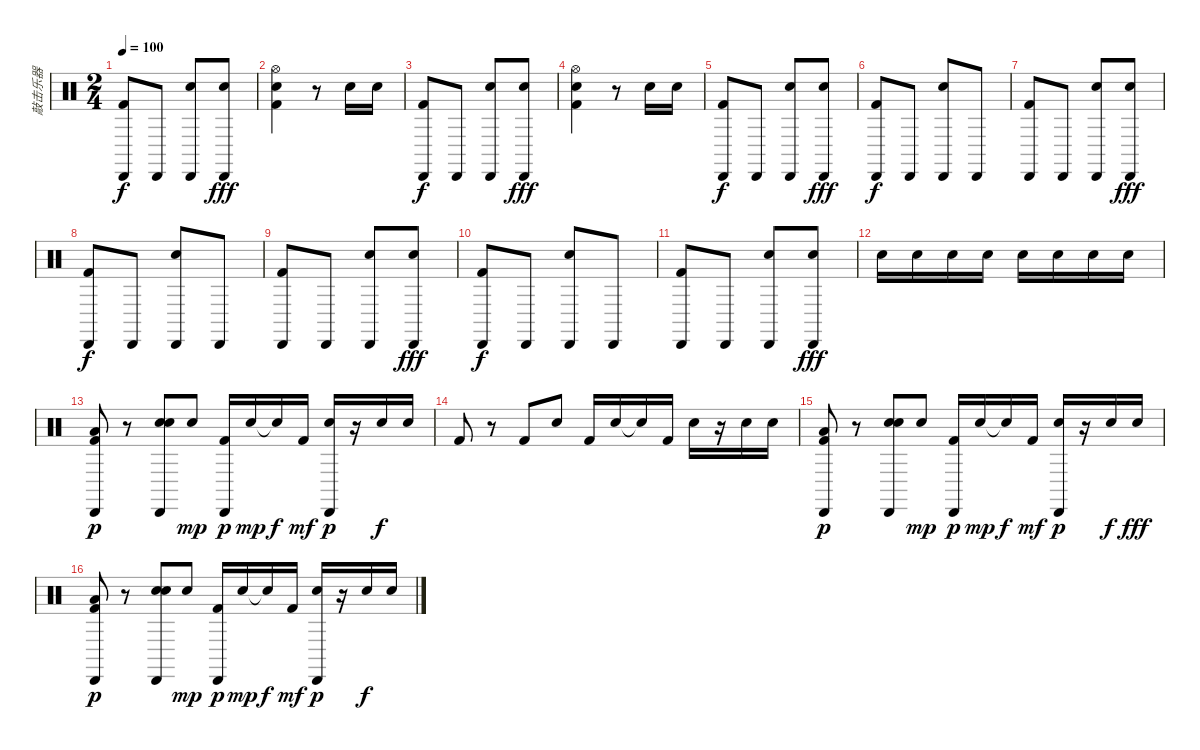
\track ("敲击乐器" "敲击乐器") {instrument percussion}
\staff {score}
\articulation defaults
\ts (2 4)
\tempo 100
\clef neutral
\ks c
("Cabasa (hit)" "Kick (hit) 2").8{dy f} "Cabasa (hit)".8 ("Cabasa (hit)" "Snare (hit) 2").8 ("Cabasa (hit)" "Electric Snare (hit)").8{dy fff} |
("Kick (hit) 2" "Snare (hit) 2" "Hi-Hat (open)").4 r.8 "Snare (hit) 2".16 "Snare (hit) 2".16 |
("Cabasa (hit)" "Kick (hit) 2").8{dy f} "Cabasa (hit)".8 ("Cabasa (hit)" "Snare (hit) 2").8 ("Cabasa (hit)" "Electric Snare (hit)").8{dy fff} |
("Kick (hit) 2" "Snare (hit) 2" "Hi-Hat (open)").4 r.8 "Snare (hit) 2".16 "Snare (hit) 2".16 |
("Cabasa (hit)" "Kick (hit) 2").8{dy f} "Cabasa (hit)".8 ("Cabasa (hit)" "Snare (hit) 2").8 ("Cabasa (hit)" "Electric Snare (hit)").8{dy fff} |
("Cabasa (hit)" "Kick (hit) 2").8{dy f} "Cabasa (hit)".8 ("Cabasa (hit)" "Snare (hit) 2").8 "Cabasa (hit)".8 |
("Cabasa (hit)" "Kick (hit) 2").8 "Cabasa (hit)".8 ("Cabasa (hit)" "Snare (hit) 2").8 ("Cabasa (hit)" "Electric Snare (hit)").8{dy fff} |
("Cabasa (hit)" "Kick (hit) 2").8{dy f} "Cabasa (hit)".8 ("Cabasa (hit)" "Snare (hit) 2").8 "Cabasa (hit)".8 |
("Cabasa (hit)" "Kick (hit) 2").8 "Cabasa (hit)".8 ("Cabasa (hit)" "Snare (hit) 2").8 ("Cabasa (hit)" "Electric Snare (hit)").8{dy fff} |
("Cabasa (hit)" "Kick (hit) 2").8{dy f} "Cabasa (hit)".8 ("Cabasa (hit)" "Snare (hit) 2").8 "Cabasa (hit)".8 |
("Cabasa (hit)" "Kick (hit) 2").8 "Cabasa (hit)".8 ("Cabasa (hit)" "Snare (hit) 2").8 ("Cabasa (hit)" "Electric Snare (hit)").8{dy fff} |
"Snare (hit) 2".16 "Snare (hit) 2".16 "Snare (hit) 2".16 "Snare (hit) 2".16 "Snare (hit) 2".16 "Snare (hit) 2".16 "Snare (hit) 2".16 "Snare (hit) 2".16 |
("Kick (hit) 2" "Low Floor Tom (hit)" "Cabasa (hit)").8{dy p} r.8 ("Snare (hit) 2" "Electric Snare (hit)" "Cabasa (hit)").8 "Snare (hit) 2".8{dy mp} ("Kick (hit) 2" "Cabasa (hit)").16{dy p} "Snare (hit) 2".16{dy mp} "Snare (hit) 2"{t}.16{dy f} "Kick (hit) 2".16{dy mf} ("Snare (hit) 2" "Cabasa (hit)").16{dy p} r.16 "Electric Snare (hit)".16{dy f} "Snare (hit) 2".16 |
"Kick (hit) 2".8 r.8 "Kick (hit) 2".8 "Snare (hit) 2".8 "Kick (hit) 2".16 "Snare (hit) 2".16 "Snare (hit) 2"{t}.16 "Kick (hit) 2".16 "Snare (hit) 2".16 r.16 "Electric Snare (hit)".16 "Snare (hit) 2".16 |
("Kick (hit) 2" "Low Floor Tom (hit)" "Cabasa (hit)").8{dy p} r.8 ("Snare (hit) 2" "Electric Snare (hit)" "Cabasa (hit)").8 "Snare (hit) 2".8{dy mp} ("Kick (hit) 2" "Cabasa (hit)").16{dy p} "Snare (hit) 2".16{dy mp} "Snare (hit) 2"{t}.16{dy f} "Kick (hit) 2".16{dy mf} ("Snare (hit) 2" "Cabasa (hit)").16{dy p} r.16 "Electric Snare (hit)".16{dy f} "Snare (hit) 2".16{dy fff} |
("Kick (hit) 2" "Low Floor Tom (hit)" "Cabasa (hit)").8{dy p} r.8 ("Snare (hit) 2" "Electric Snare (hit)" "Cabasa (hit)").8 "Snare (hit) 2".8{dy mp} ("Kick (hit) 2" "Cabasa (hit)").16{dy p} "Snare (hit) 2".16{dy mp} "Snare (hit) 2"{t}.16{dy f} "Kick (hit) 2".16{dy mf} ("Snare (hit) 2" "Cabasa (hit)").16{dy p} r.16 "Electric Snare (hit)".16{dy f} "Snare (hit) 2".16
